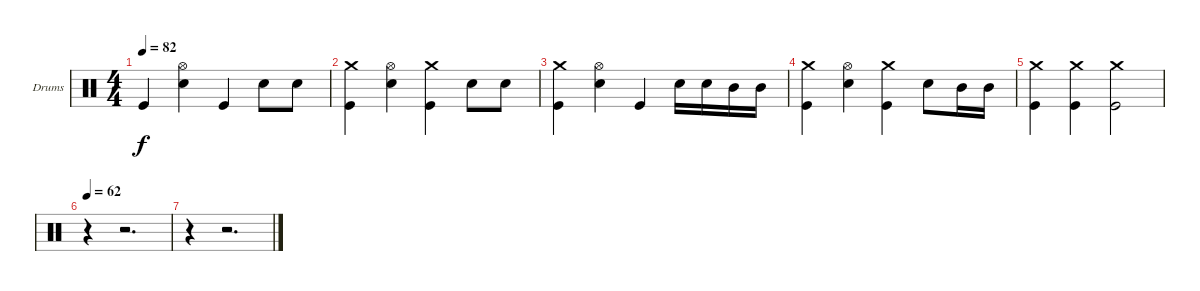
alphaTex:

\bracketExtendMode groupsimilarinstruments
\firstSystemTrackNameOrientation horizontal
\otherSystemsTrackNameOrientation horizontal
\track ("Drumkit" "Drums") {instrument percussion}
\staff {score}
\articulation defaults
\ts (4 4)
\tempo 82
\clef neutral
\ks c "Kick (hit)".4{dy f}
("Hi-Hat (open)" "Snare (hit) 2").4 "Kick (hit)".4 "Snare (hit) 2".8 "Snare (hit) 2".8 |
("Crash medium (hit)" "Kick (hit)").4 ("Hi-Hat (open)" "Snare (hit) 2").4 ("Crash medium (hit)" "Kick (hit)").4 "Snare (hit) 2".8 "Snare (hit) 2".8 |
("Crash medium (hit)" "Kick (hit)").4 ("Hi-Hat (open)" "Snare (hit) 2").4 "Kick (hit)".4 "Snare (hit) 2".16 "Snare (hit) 2".16 "Mid Tom (hit)".16 "Mid Tom (hit)".16 |
("Crash medium (hit)" "Kick (hit)").4 ("Hi-Hat (open)" "Snare (hit) 2").4 ("Crash medium (hit)" "Kick (hit)").4 "Snare (hit) 2".8 "Mid Tom (hit)".16 "Mid Tom (hit)".16 |
("Kick (hit)" "Crash medium (hit)").4 ("Kick (hit)" "Crash medium (hit)").4 ("Kick (hit)" "Crash medium (hit)").2 |
\tempo 62
r.4 r.2{d} |
r.4 r.2{d}
